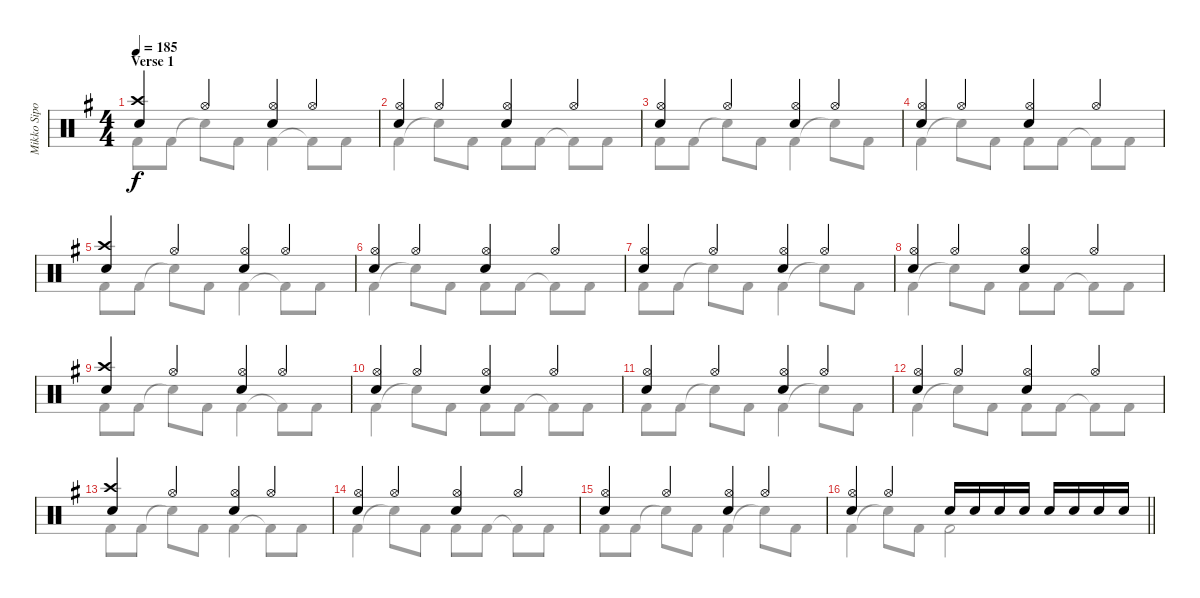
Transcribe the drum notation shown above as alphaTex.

\track ("Mikko Sipola (drums)" "Mikko Sipo") {instrument percussion}
\staff {score}
\articulation defaults
\voice
\ts (4 4)
\section ("" "Verse 1")
\tempo 185
\clef neutral
\ks eminor
("Crash high (hit)" "Electric Snare (hit)").4{dy f} "Hi-Hat (open)".4 ("Hi-Hat (open)" "Electric Snare (hit)").4 "Hi-Hat (open)".4 |
("Hi-Hat (open)" "Electric Snare (hit)").4 "Hi-Hat (open)".4 ("Hi-Hat (open)" "Electric Snare (hit)").4 "Hi-Hat (open)".4 |
("Hi-Hat (open)" "Electric Snare (hit)").4 "Hi-Hat (open)".4 ("Hi-Hat (open)" "Electric Snare (hit)").4 "Hi-Hat (open)".4 |
("Hi-Hat (open)" "Electric Snare (hit)").4 "Hi-Hat (open)".4 ("Hi-Hat (open)" "Electric Snare (hit)").4 "Hi-Hat (open)".4 |
("Crash high (hit)" "Electric Snare (hit)").4 "Hi-Hat (open)".4 ("Hi-Hat (open)" "Electric Snare (hit)").4 "Hi-Hat (open)".4 |
("Hi-Hat (open)" "Electric Snare (hit)").4 "Hi-Hat (open)".4 ("Hi-Hat (open)" "Electric Snare (hit)").4 "Hi-Hat (open)".4 |
("Hi-Hat (open)" "Electric Snare (hit)").4 "Hi-Hat (open)".4 ("Hi-Hat (open)" "Electric Snare (hit)").4 "Hi-Hat (open)".4 |
("Hi-Hat (open)" "Electric Snare (hit)").4 "Hi-Hat (open)".4 ("Hi-Hat (open)" "Electric Snare (hit)").4 "Hi-Hat (open)".4 |
("Crash high (hit)" "Electric Snare (hit)").4 "Hi-Hat (open)".4 ("Hi-Hat (open)" "Electric Snare (hit)").4 "Hi-Hat (open)".4 |
("Hi-Hat (open)" "Electric Snare (hit)").4 "Hi-Hat (open)".4 ("Hi-Hat (open)" "Electric Snare (hit)").4 "Hi-Hat (open)".4 |
("Hi-Hat (open)" "Electric Snare (hit)").4 "Hi-Hat (open)".4 ("Hi-Hat (open)" "Electric Snare (hit)").4 "Hi-Hat (open)".4 |
("Hi-Hat (open)" "Electric Snare (hit)").4 "Hi-Hat (open)".4 ("Hi-Hat (open)" "Electric Snare (hit)").4 "Hi-Hat (open)".4 |
("Crash high (hit)" "Electric Snare (hit)").4 "Hi-Hat (open)".4 ("Hi-Hat (open)" "Electric Snare (hit)").4 "Hi-Hat (open)".4 |
("Hi-Hat (open)" "Electric Snare (hit)").4 "Hi-Hat (open)".4 ("Hi-Hat (open)" "Electric Snare (hit)").4 "Hi-Hat (open)".4 |
("Hi-Hat (open)" "Electric Snare (hit)").4 "Hi-Hat (open)".4 ("Hi-Hat (open)" "Electric Snare (hit)").4 "Hi-Hat (open)".4 |
\barLineRight lightlight
("Hi-Hat (open)" "Electric Snare (hit)").4 "Hi-Hat (open)".4 "Electric Snare (hit)".16 "Electric Snare (hit)".16 "Electric Snare (hit)".16 "Electric Snare (hit)".16 "Electric Snare (hit)".16 "Electric Snare (hit)".16 "Electric Snare (hit)".16 "Electric Snare (hit)".16
\voice
\clef neutral
\ottava regular
\simile none
\ks eminor "Kick (hit) 2".8{dy f} "Kick (hit) 2".8 "Snare (hit)"{t}.8 "Kick (hit) 2".8 "Kick (hit) 2".4 "Kick (hit) 2"{t}.8 "Kick (hit) 2".8
|
"Kick (hit) 2".4 "Snare (hit)"{t}.8 "Kick (hit) 2".8 "Kick (hit) 2".8 "Kick (hit) 2".8 "Kick (hit) 2"{t}.8 "Kick (hit) 2".8 |
"Kick (hit) 2".8 "Kick (hit) 2".8 "Snare (hit)"{t}.8 "Kick (hit) 2".8 "Kick (hit) 2".4 "Snare (hit)"{t}.8 "Kick (hit) 2".8 |
"Kick (hit) 2".4 "Snare (hit)"{t}.8 "Kick (hit) 2".8 "Kick (hit) 2".8 "Kick (hit) 2".8 "Kick (hit) 2"{t}.8 "Kick (hit) 2".8 |
"Kick (hit) 2".8 "Kick (hit) 2".8 "Snare (hit)"{t}.8 "Kick (hit) 2".8 "Kick (hit) 2".4 "Kick (hit) 2"{t}.8 "Kick (hit) 2".8 |
"Kick (hit) 2".4 "Snare (hit)"{t}.8 "Kick (hit) 2".8 "Kick (hit) 2".8 "Kick (hit) 2".8 "Kick (hit) 2"{t}.8 "Kick (hit) 2".8 |
"Kick (hit) 2".8 "Kick (hit) 2".8 "Snare (hit)"{t}.8 "Kick (hit) 2".8 "Kick (hit) 2".4 "Snare (hit)"{t}.8 "Kick (hit) 2".8 |
"Kick (hit) 2".4 "Snare (hit)"{t}.8 "Kick (hit) 2".8 "Kick (hit) 2".8 "Kick (hit) 2".8 "Kick (hit) 2"{t}.8 "Kick (hit) 2".8 |
"Kick (hit) 2".8 "Kick (hit) 2".8 "Snare (hit)"{t}.8 "Kick (hit) 2".8 "Kick (hit) 2".4 "Kick (hit) 2"{t}.8 "Kick (hit) 2".8 |
"Kick (hit) 2".4 "Snare (hit)"{t}.8 "Kick (hit) 2".8 "Kick (hit) 2".8 "Kick (hit) 2".8 "Kick (hit) 2"{t}.8 "Kick (hit) 2".8 |
"Kick (hit) 2".8 "Kick (hit) 2".8 "Snare (hit)"{t}.8 "Kick (hit) 2".8 "Kick (hit) 2".4 "Snare (hit)"{t}.8 "Kick (hit) 2".8 |
"Kick (hit) 2".4 "Snare (hit)"{t}.8 "Kick (hit) 2".8 "Kick (hit) 2".8 "Kick (hit) 2".8 "Kick (hit) 2"{t}.8 "Kick (hit) 2".8 |
"Kick (hit) 2".8 "Kick (hit) 2".8 "Snare (hit)"{t}.8 "Kick (hit) 2".8 "Kick (hit) 2".4 "Kick (hit) 2"{t}.8 "Kick (hit) 2".8 |
"Kick (hit) 2".4 "Snare (hit)"{t}.8 "Kick (hit) 2".8 "Kick (hit) 2".8 "Kick (hit) 2".8 "Kick (hit) 2"{t}.8 "Kick (hit) 2".8 |
"Kick (hit) 2".8 "Kick (hit) 2".8 "Snare (hit)"{t}.8 "Kick (hit) 2".8 "Kick (hit) 2".4 "Snare (hit)"{t}.8 "Kick (hit) 2".8 |
\barLineRight lightlight "Kick (hit) 2".4 "Snare (hit)"{t}.8 "Kick (hit) 2".8 "Kick (hit) 2".2
